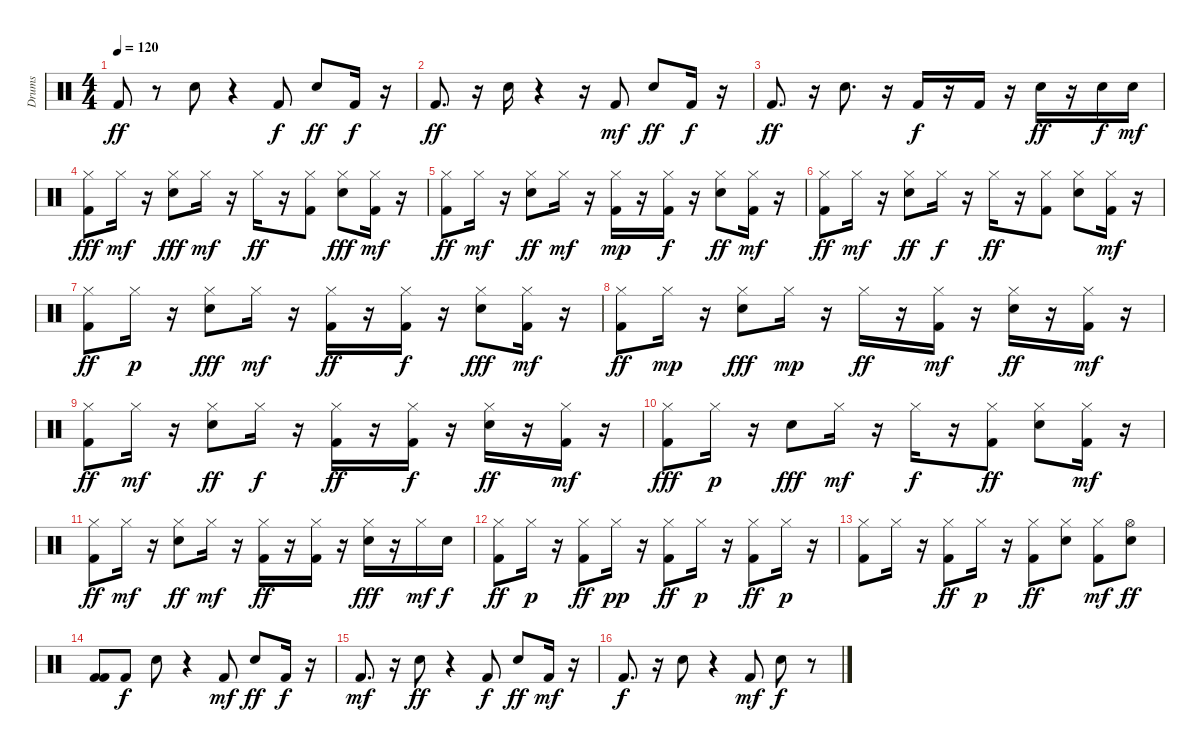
\track ("Drums" "Drums") {instrument percussion}
\staff {score}
\articulation defaults
\ts (4 4)
\tempo 120
\clef neutral
\ks c "Kick (hit) 2".8{dy ff}
r.8 "Electric Snare (hit)".8 r.4 "Kick (hit) 2".8{dy f} "Electric Snare (hit)".8{dy ff} "Kick (hit) 2".16{dy f} r.16 |
"Kick (hit) 2".8{d dy ff} r.16 "Electric Snare (hit)".16 r.4 r.16 "Kick (hit) 2".8{dy mf} "Electric Snare (hit)".8{dy ff} "Kick (hit) 2".16{dy f} r.16 |
"Kick (hit) 2".8{d dy ff} r.16 "Electric Snare (hit)".8{d} r.16 "Kick (hit) 2".16{dy f} r.16 "Kick (hit) 2".16 r.16 "Electric Snare (hit)".16{dy ff} r.16 "Electric Snare (hit)".16{dy f} "Electric Snare (hit)".16{dy mf} |
("Kick (hit) 2" "Hi-Hat (closed)").8{dy fff} "Hi-Hat (closed)".16{dy mf} r.16 ("Electric Snare (hit)" "Hi-Hat (closed)").8{dy fff} "Hi-Hat (closed)".16{dy mf} r.16 "Hi-Hat (closed)".16{dy ff} r.16 ("Hi-Hat (closed)" "Kick (hit) 2").8 ("Electric Snare (hit)" "Hi-Hat (closed)").8{dy fff} ("Kick (hit) 2" "Hi-Hat (closed)").16{dy mf} r.16 |
("Kick (hit) 2" "Hi-Hat (closed)").8{dy ff} "Hi-Hat (closed)".16{dy mf} r.16 ("Electric Snare (hit)" "Hi-Hat (closed)").8{dy ff} "Hi-Hat (closed)".16{dy mf} r.16 ("Kick (hit) 2" "Hi-Hat (closed)").16{dy mp} r.16 ("Hi-Hat (closed)" "Kick (hit) 2").16{dy f} r.16 ("Hi-Hat (closed)" "Electric Snare (hit)").8{dy ff} ("Kick (hit) 2" "Hi-Hat (closed)").16{dy mf} r.16 |
("Hi-Hat (closed)" "Kick (hit) 2").8{dy ff} "Hi-Hat (closed)".16{dy mf} r.16 ("Hi-Hat (closed)" "Electric Snare (hit)").8{dy ff} "Hi-Hat (closed)".16{dy f} r.16 "Hi-Hat (closed)".16{dy ff} r.16 ("Kick (hit) 2" "Hi-Hat (closed)").8 ("Electric Snare (hit)" "Hi-Hat (closed)").8 ("Kick (hit) 2" "Hi-Hat (closed)").16{dy mf} r.16 |
("Hi-Hat (closed)" "Kick (hit) 2").8{dy ff} "Hi-Hat (closed)".16{dy p} r.16 ("Hi-Hat (closed)" "Electric Snare (hit)").8{dy fff} "Hi-Hat (closed)".16{dy mf} r.16 ("Kick (hit) 2" "Hi-Hat (closed)").16{dy ff} r.16 ("Hi-Hat (closed)" "Kick (hit) 2").16{dy f} r.16 ("Electric Snare (hit)" "Hi-Hat (closed)").8{dy fff} ("Hi-Hat (closed)" "Kick (hit) 2").16{dy mf} r.16 |
("Hi-Hat (closed)" "Kick (hit) 2").8{dy ff} "Hi-Hat (closed)".16{dy mp} r.16 ("Hi-Hat (closed)" "Electric Snare (hit)").8{dy fff} "Hi-Hat (closed)".16{dy mp} r.16 "Hi-Hat (closed)".16{dy ff} r.16 ("Kick (hit) 2" "Hi-Hat (closed)").16{dy mf} r.16 ("Hi-Hat (closed)" "Electric Snare (hit)").16{dy ff} r.16 ("Hi-Hat (closed)" "Kick (hit) 2").16{dy mf} r.16 |
("Hi-Hat (closed)" "Kick (hit) 2").8{dy ff} "Hi-Hat (closed)".16{dy mf} r.16 ("Hi-Hat (closed)" "Electric Snare (hit)").8{dy ff} "Hi-Hat (closed)".16{dy f} r.16 ("Hi-Hat (closed)" "Kick (hit) 2").16{dy ff} r.16 ("Hi-Hat (closed)" "Kick (hit) 2").16{dy f} r.16 ("Hi-Hat (closed)" "Electric Snare (hit)").16{dy ff} r.16 ("Kick (hit) 2" "Hi-Hat (closed)").16{dy mf} r.16 |
("Hi-Hat (closed)" "Kick (hit) 2").8{dy fff} "Hi-Hat (closed)".16{dy p} r.16 "Electric Snare (hit)".8{dy fff} "Hi-Hat (closed)".16{dy mf} r.16 "Hi-Hat (closed)".16{dy f} r.16 ("Hi-Hat (closed)" "Kick (hit) 2").8{dy ff} ("Hi-Hat (closed)" "Electric Snare (hit)").8 ("Hi-Hat (closed)" "Kick (hit) 2").16{dy mf} r.16 |
("Kick (hit) 2" "Hi-Hat (closed)").8{dy ff} "Hi-Hat (closed)".16{dy mf} r.16 ("Electric Snare (hit)" "Hi-Hat (closed)").8{dy ff} "Hi-Hat (closed)".16{dy mf} r.16 ("Kick (hit) 2" "Hi-Hat (closed)").16{dy ff} r.16 ("Hi-Hat (closed)" "Kick (hit) 2").16 r.16 ("Hi-Hat (closed)" "Electric Snare (hit)").16{dy fff} r.16 "Hi-Hat (closed)".16{dy mf} "Electric Snare (hit)".16{dy f} |
("Hi-Hat (closed)" "Kick (hit) 2").8{dy ff} "Hi-Hat (closed)".16{dy p} r.16 ("Hi-Hat (closed)" "Kick (hit) 2").8{dy ff} "Hi-Hat (closed)".16{dy pp} r.16 ("Hi-Hat (closed)" "Kick (hit) 2").8{dy ff} "Hi-Hat (closed)".16{dy p} r.16 ("Hi-Hat (closed)" "Kick (hit) 2").8{dy ff} "Hi-Hat (closed)".16{dy p} r.16 |
("Hi-Hat (closed)" "Kick (hit) 2").8 "Hi-Hat (closed)".16 r.16 ("Hi-Hat (closed)" "Kick (hit) 2").8{dy ff} "Hi-Hat (closed)".16{dy p} r.16 ("Hi-Hat (closed)" "Kick (hit) 2").8{dy ff} ("Hi-Hat (closed)" "Electric Snare (hit)").8 ("Hi-Hat (closed)" "Kick (hit) 2").8{dy mf} ("Hi-Hat (open)" "Electric Snare (hit)").8{dy ff} |
("Kick (hit) 2" "Kick (hit) 2").8 "Kick (hit) 2".8{dy f} "Electric Snare (hit)".8 r.4 "Kick (hit) 2".8{dy mf} "Electric Snare (hit)".8{dy ff} "Kick (hit) 2".16{dy f} r.16 |
"Kick (hit) 2".8{d dy mf} r.16 "Electric Snare (hit)".8{dy ff} r.4 "Kick (hit) 2".8{dy f} "Electric Snare (hit)".8{dy ff} "Kick (hit) 2".16{dy mf} r.16 |
"Kick (hit) 2".8{d dy f} r.16 "Electric Snare (hit)".8 r.4 "Kick (hit) 2".8{dy mf} "Electric Snare (hit)".8{dy f} r.8
